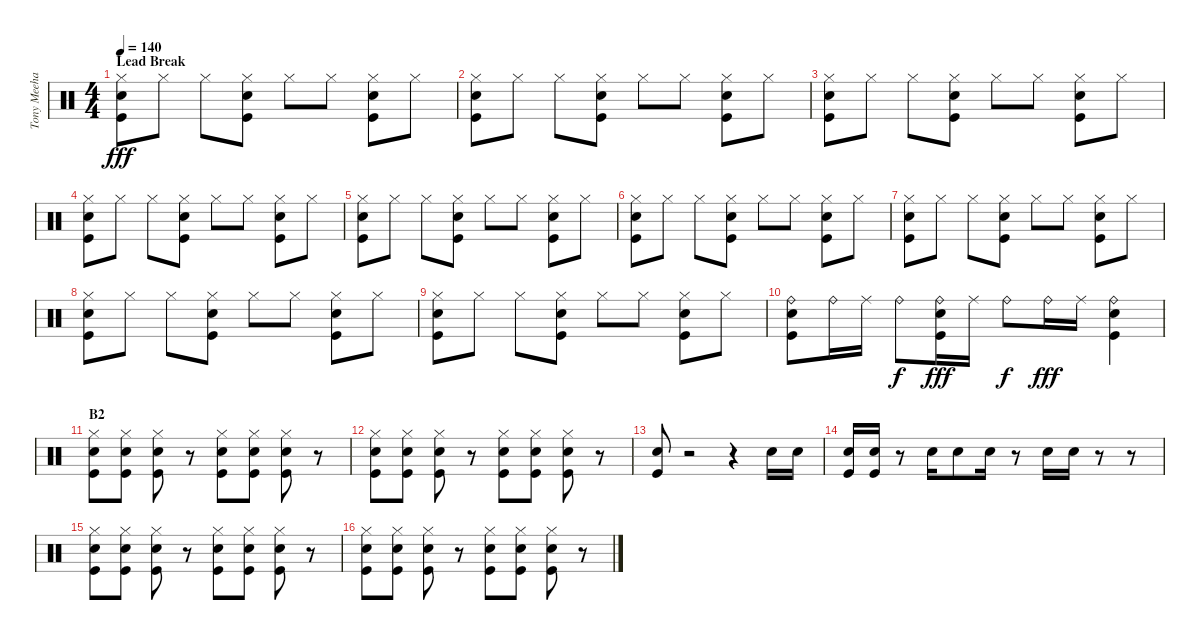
\track ("Tony Meehan" "Tony Meeha") {instrument percussion}
\staff {score}
\articulation defaults
\ts (4 4)
\section ("" "Lead Break")
\tempo 140
\clef neutral
\ks c
("Hi-Hat (closed)" "Electric Snare (hit)" "Kick (hit)").8{dy fff} "Hi-Hat (closed)".8 "Hi-Hat (closed)".8 ("Hi-Hat (closed)" "Electric Snare (hit)" "Kick (hit)").8 "Hi-Hat (closed)".8 "Hi-Hat (closed)".8 ("Hi-Hat (closed)" "Electric Snare (hit)" "Kick (hit)").8 "Hi-Hat (closed)".8 |
("Hi-Hat (closed)" "Electric Snare (hit)" "Kick (hit)").8 "Hi-Hat (closed)".8 "Hi-Hat (closed)".8 ("Hi-Hat (closed)" "Electric Snare (hit)" "Kick (hit)").8 "Hi-Hat (closed)".8 "Hi-Hat (closed)".8 ("Hi-Hat (closed)" "Electric Snare (hit)" "Kick (hit)").8 "Hi-Hat (closed)".8 |
("Hi-Hat (closed)" "Electric Snare (hit)" "Kick (hit)").8 "Hi-Hat (closed)".8 "Hi-Hat (closed)".8 ("Hi-Hat (closed)" "Electric Snare (hit)" "Kick (hit)").8 "Hi-Hat (closed)".8 "Hi-Hat (closed)".8 ("Hi-Hat (closed)" "Electric Snare (hit)" "Kick (hit)").8 "Hi-Hat (closed)".8 |
("Hi-Hat (closed)" "Electric Snare (hit)" "Kick (hit)").8 "Hi-Hat (closed)".8 "Hi-Hat (closed)".8 ("Hi-Hat (closed)" "Electric Snare (hit)" "Kick (hit)").8 "Hi-Hat (closed)".8 "Hi-Hat (closed)".8 ("Hi-Hat (closed)" "Electric Snare (hit)" "Kick (hit)").8 "Hi-Hat (closed)".8 |
("Hi-Hat (closed)" "Electric Snare (hit)" "Kick (hit)").8 "Hi-Hat (closed)".8 "Hi-Hat (closed)".8 ("Hi-Hat (closed)" "Electric Snare (hit)" "Kick (hit)").8 "Hi-Hat (closed)".8 "Hi-Hat (closed)".8 ("Hi-Hat (closed)" "Electric Snare (hit)" "Kick (hit)").8 "Hi-Hat (closed)".8 |
("Hi-Hat (closed)" "Electric Snare (hit)" "Kick (hit)").8 "Hi-Hat (closed)".8 "Hi-Hat (closed)".8 ("Hi-Hat (closed)" "Electric Snare (hit)" "Kick (hit)").8 "Hi-Hat (closed)".8 "Hi-Hat (closed)".8 ("Hi-Hat (closed)" "Electric Snare (hit)" "Kick (hit)").8 "Hi-Hat (closed)".8 |
("Hi-Hat (closed)" "Electric Snare (hit)" "Kick (hit)").8 "Hi-Hat (closed)".8 "Hi-Hat (closed)".8 ("Hi-Hat (closed)" "Electric Snare (hit)" "Kick (hit)").8 "Hi-Hat (closed)".8 "Hi-Hat (closed)".8 ("Hi-Hat (closed)" "Electric Snare (hit)" "Kick (hit)").8 "Hi-Hat (closed)".8 |
("Hi-Hat (closed)" "Electric Snare (hit)" "Kick (hit)").8 "Hi-Hat (closed)".8 "Hi-Hat (closed)".8 ("Hi-Hat (closed)" "Electric Snare (hit)" "Kick (hit)").8 "Hi-Hat (closed)".8 "Hi-Hat (closed)".8 ("Hi-Hat (closed)" "Electric Snare (hit)" "Kick (hit)").8 "Hi-Hat (closed)".8 |
("Hi-Hat (closed)" "Electric Snare (hit)" "Kick (hit)").8 "Hi-Hat (closed)".8 "Hi-Hat (closed)".8 ("Hi-Hat (closed)" "Electric Snare (hit)" "Kick (hit)").8 "Hi-Hat (closed)".8 "Hi-Hat (closed)".8 ("Hi-Hat (closed)" "Electric Snare (hit)" "Kick (hit)").8 "Hi-Hat (closed)".8 |
("Ride (bell)" "Electric Snare (hit)" "Kick (hit)").8 "Ride (bell)".16 "Ride (middle)".16 "Ride (bell)".8{dy f} ("Ride (bell)" "Electric Snare (hit)" "Kick (hit)").16{dy fff} "Ride (middle)".16 "Ride (bell)".8{dy f} "Ride (bell)".16{dy fff} "Ride (middle)".16 ("Ride (bell)" "Electric Snare (hit)" "Kick (hit)").4 |
\section ("" "B2")
("Hi-Hat (closed)" "Electric Snare (hit)" "Kick (hit)").8 ("Hi-Hat (closed)" "Electric Snare (hit)" "Kick (hit)").8 ("Hi-Hat (closed)" "Electric Snare (hit)" "Kick (hit)").8 r.8 ("Hi-Hat (closed)" "Electric Snare (hit)" "Kick (hit)").8 ("Hi-Hat (closed)" "Electric Snare (hit)" "Kick (hit)").8 ("Hi-Hat (closed)" "Electric Snare (hit)" "Kick (hit)").8 r.8 |
("Hi-Hat (closed)" "Electric Snare (hit)" "Kick (hit)").8 ("Hi-Hat (closed)" "Electric Snare (hit)" "Kick (hit)").8 ("Hi-Hat (closed)" "Electric Snare (hit)" "Kick (hit)").8 r.8 ("Hi-Hat (closed)" "Electric Snare (hit)" "Kick (hit)").8 ("Hi-Hat (closed)" "Electric Snare (hit)" "Kick (hit)").8 ("Hi-Hat (closed)" "Electric Snare (hit)" "Kick (hit)").8 r.8 |
("Electric Snare (hit)" "Kick (hit)").8 r.2 r.4 "Electric Snare (hit)".16 "Electric Snare (hit)".16 |
("Electric Snare (hit)" "Kick (hit)").16 ("Electric Snare (hit)" "Kick (hit)").16 r.8 "Electric Snare (hit)".16 "Electric Snare (hit)".8 "Electric Snare (hit)".16 r.8 "Electric Snare (hit)".16 "Electric Snare (hit)".16 r.8 r.8 |
("Hi-Hat (closed)" "Electric Snare (hit)" "Kick (hit)").8 ("Hi-Hat (closed)" "Electric Snare (hit)" "Kick (hit)").8 ("Hi-Hat (closed)" "Electric Snare (hit)" "Kick (hit)").8 r.8 ("Hi-Hat (closed)" "Electric Snare (hit)" "Kick (hit)").8 ("Hi-Hat (closed)" "Electric Snare (hit)" "Kick (hit)").8 ("Hi-Hat (closed)" "Electric Snare (hit)" "Kick (hit)").8 r.8 |
("Hi-Hat (closed)" "Electric Snare (hit)" "Kick (hit)").8 ("Hi-Hat (closed)" "Electric Snare (hit)" "Kick (hit)").8 ("Hi-Hat (closed)" "Electric Snare (hit)" "Kick (hit)").8 r.8 ("Hi-Hat (closed)" "Electric Snare (hit)" "Kick (hit)").8 ("Hi-Hat (closed)" "Electric Snare (hit)" "Kick (hit)").8 ("Hi-Hat (closed)" "Electric Snare (hit)" "Kick (hit)").8 r.8
